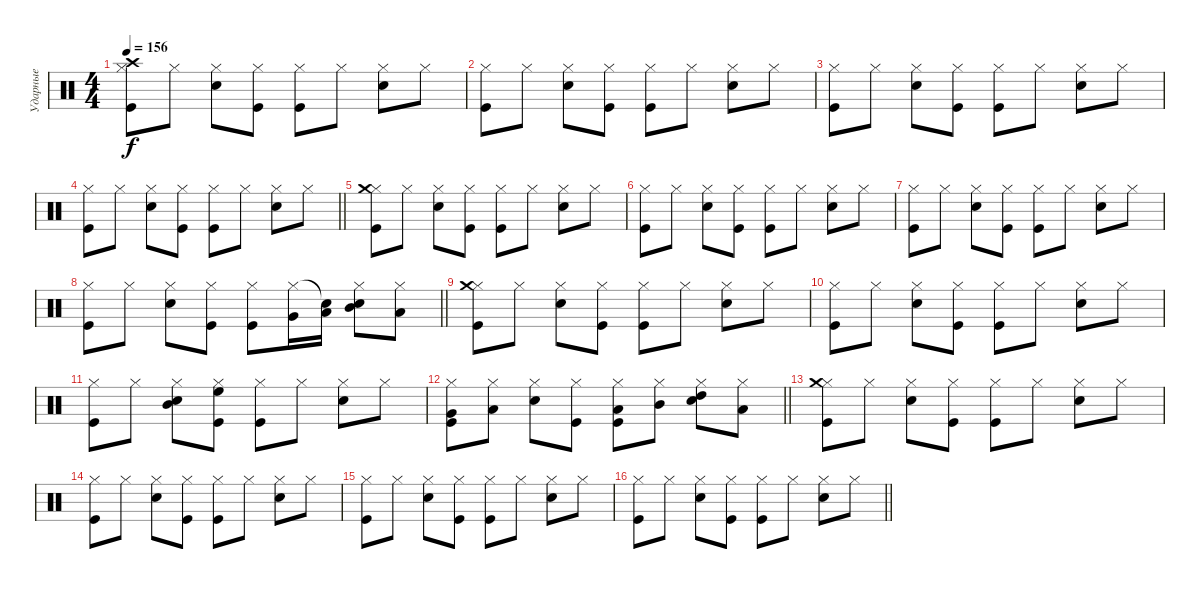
\track ("Ударные" "Ударные") {instrument percussion}
\staff {score}
\articulation defaults
\ts (4 4)
\tempo 156
\clef neutral
\ks c
("Hi-Hat (closed)" "Kick (hit)" "Crash high (hit)").8{dy f} "Hi-Hat (closed)".8 ("Hi-Hat (closed)" "Snare (hit) 2").8 ("Hi-Hat (closed)" "Kick (hit)").8 ("Hi-Hat (closed)" "Kick (hit)").8 "Hi-Hat (closed)".8 ("Hi-Hat (closed)" "Snare (hit) 2").8 "Hi-Hat (closed)".8 |
("Hi-Hat (closed)" "Kick (hit)").8 "Hi-Hat (closed)".8 ("Hi-Hat (closed)" "Snare (hit) 2").8 ("Hi-Hat (closed)" "Kick (hit)").8 ("Hi-Hat (closed)" "Kick (hit)").8 "Hi-Hat (closed)".8 ("Hi-Hat (closed)" "Snare (hit) 2").8 "Hi-Hat (closed)".8 |
("Hi-Hat (closed)" "Kick (hit)").8 "Hi-Hat (closed)".8 ("Hi-Hat (closed)" "Snare (hit) 2").8 ("Hi-Hat (closed)" "Kick (hit)").8 ("Hi-Hat (closed)" "Kick (hit)").8 "Hi-Hat (closed)".8 ("Hi-Hat (closed)" "Snare (hit) 2").8 "Hi-Hat (closed)".8 |
\barLineRight lightlight
("Hi-Hat (closed)" "Kick (hit)").8 "Hi-Hat (closed)".8 ("Hi-Hat (closed)" "Snare (hit) 2").8 ("Hi-Hat (closed)" "Kick (hit)").8 ("Hi-Hat (closed)" "Kick (hit)").8 "Hi-Hat (closed)".8 ("Hi-Hat (closed)" "Snare (hit) 2").8 "Hi-Hat (closed)".8 |
("Hi-Hat (closed)" "Kick (hit)" "Crash medium (hit)").8 "Hi-Hat (closed)".8 ("Hi-Hat (closed)" "Snare (hit) 2").8 ("Hi-Hat (closed)" "Kick (hit)").8 ("Hi-Hat (closed)" "Kick (hit)").8 "Hi-Hat (closed)".8 ("Hi-Hat (closed)" "Snare (hit) 2").8 "Hi-Hat (closed)".8 |
("Hi-Hat (closed)" "Kick (hit)").8 "Hi-Hat (closed)".8 ("Hi-Hat (closed)" "Snare (hit) 2").8 ("Hi-Hat (closed)" "Kick (hit)").8 ("Hi-Hat (closed)" "Kick (hit)").8 "Hi-Hat (closed)".8 ("Hi-Hat (closed)" "Snare (hit) 2").8 "Hi-Hat (closed)".8 |
("Hi-Hat (closed)" "Kick (hit)").8 "Hi-Hat (closed)".8 ("Hi-Hat (closed)" "Snare (hit) 2").8 ("Hi-Hat (closed)" "Kick (hit)").8 ("Hi-Hat (closed)" "Kick (hit)").8 "Hi-Hat (closed)".8 ("Hi-Hat (closed)" "Snare (hit) 2").8 "Hi-Hat (closed)".8 |
\barLineRight lightlight
("Hi-Hat (closed)" "Kick (hit)").8 "Hi-Hat (closed)".8 ("Hi-Hat (closed)" "Snare (hit) 2").8 ("Hi-Hat (closed)" "Kick (hit)").8 ("Hi-Hat (closed)" "Kick (hit)").8 ("Hi-Hat (closed)" "Very Low Tom (hit)").16 ("Snare (hit)"{t} "Low Tom (hit)").16 ("Hi-Hat (closed)" "Snare (hit) 2" "Mid Tom (hit)").8 ("Hi-Hat (closed)" "Low Tom (hit)").8 |
("Hi-Hat (closed)" "Kick (hit)" "Crash medium (hit)").8 "Hi-Hat (closed)".8 ("Hi-Hat (closed)" "Snare (hit) 2").8 ("Hi-Hat (closed)" "Kick (hit)").8 ("Hi-Hat (closed)" "Kick (hit)").8 "Hi-Hat (closed)".8 ("Hi-Hat (closed)" "Snare (hit) 2").8 "Hi-Hat (closed)".8 |
("Hi-Hat (closed)" "Kick (hit)").8 "Hi-Hat (closed)".8 ("Hi-Hat (closed)" "Snare (hit) 2").8 ("Hi-Hat (closed)" "Kick (hit)").8 ("Hi-Hat (closed)" "Kick (hit)").8 "Hi-Hat (closed)".8 ("Hi-Hat (closed)" "Snare (hit) 2").8 "Hi-Hat (closed)".8 |
("Hi-Hat (closed)" "Kick (hit)").8 "Hi-Hat (closed)".8 ("Hi-Hat (closed)" "Snare (hit) 2" "Mid Tom (hit)").8 ("Hi-Hat (closed)" "Kick (hit)" "High Floor Tom (hit)").8 ("Hi-Hat (closed)" "Kick (hit)").8 "Hi-Hat (closed)".8 ("Hi-Hat (closed)" "Snare (hit) 2").8 "Hi-Hat (closed)".8 |
\barLineRight lightlight
("Hi-Hat (closed)" "Kick (hit)" "Very Low Tom (hit)").8 ("Hi-Hat (closed)" "Low Tom (hit)").8 ("Hi-Hat (closed)" "Snare (hit) 2").8 ("Hi-Hat (closed)" "Kick (hit)").8 ("Hi-Hat (closed)" "Kick (hit)" "Low Tom (hit)").8 ("Hi-Hat (closed)" "Mid Tom (hit)").8 ("Hi-Hat (closed)" "Snare (hit) 2" "High Tom (hit)").8 ("Hi-Hat (closed)" "Low Tom (hit)").8 |
("Hi-Hat (closed)" "Kick (hit)" "Crash medium (hit)").8 "Hi-Hat (closed)".8 ("Hi-Hat (closed)" "Snare (hit) 2").8 ("Hi-Hat (closed)" "Kick (hit)").8 ("Hi-Hat (closed)" "Kick (hit)").8 "Hi-Hat (closed)".8 ("Hi-Hat (closed)" "Snare (hit) 2").8 "Hi-Hat (closed)".8 |
("Hi-Hat (closed)" "Kick (hit)").8 "Hi-Hat (closed)".8 ("Hi-Hat (closed)" "Snare (hit) 2").8 ("Hi-Hat (closed)" "Kick (hit)").8 ("Hi-Hat (closed)" "Kick (hit)").8 "Hi-Hat (closed)".8 ("Hi-Hat (closed)" "Snare (hit) 2").8 "Hi-Hat (closed)".8 |
("Hi-Hat (closed)" "Kick (hit)").8 "Hi-Hat (closed)".8 ("Hi-Hat (closed)" "Snare (hit) 2").8 ("Hi-Hat (closed)" "Kick (hit)").8 ("Hi-Hat (closed)" "Kick (hit)").8 "Hi-Hat (closed)".8 ("Hi-Hat (closed)" "Snare (hit) 2").8 "Hi-Hat (closed)".8 |
\barLineRight lightlight
("Hi-Hat (closed)" "Kick (hit)").8 "Hi-Hat (closed)".8 ("Hi-Hat (closed)" "Snare (hit) 2").8 ("Hi-Hat (closed)" "Kick (hit)").8 ("Hi-Hat (closed)" "Kick (hit)").8 "Hi-Hat (closed)".8 ("Hi-Hat (closed)" "Snare (hit) 2").8 "Hi-Hat (closed)".8
